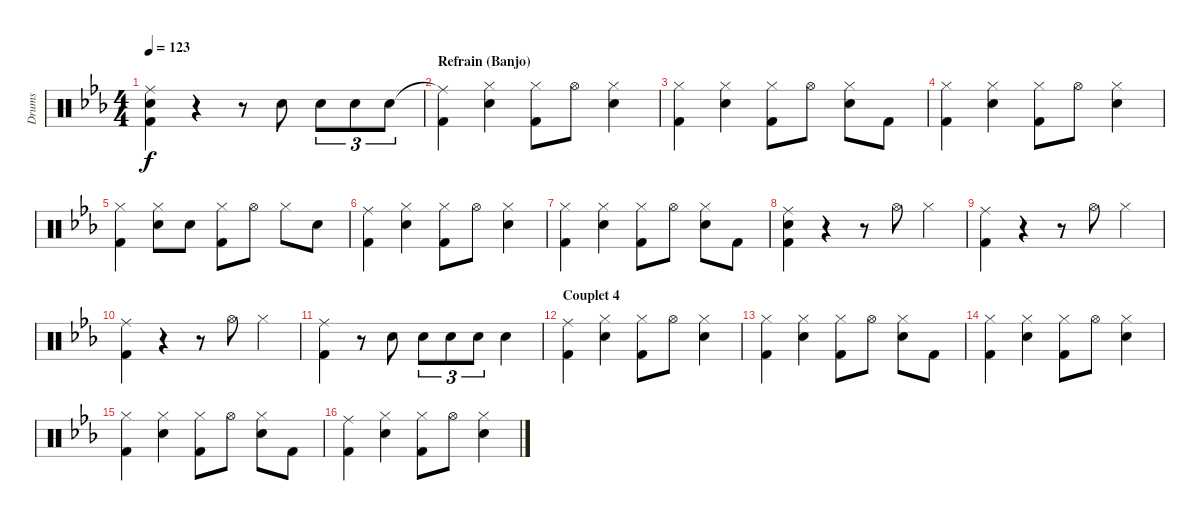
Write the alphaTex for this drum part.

\track ("Drums" "Drums") {instrument percussion}
\staff {score}
\articulation defaults
\ts (4 4)
\tempo 123
\clef neutral
\ks cminor
("Ride (middle)" "Electric Snare (hit)" "Kick (hit) 2").4{dy f} r.4 r.8 "Electric Snare (hit)".8 "Electric Snare (hit)".8{tu (3 2)} "Electric Snare (hit)".8{tu (3 2)} "Electric Snare (hit)".8{tu (3 2)} |
\section ("" "Refrain (Banjo)")
("Ride (middle)"{t} "Kick (hit) 2").4 ("Hi-Hat (closed)" "Electric Snare (hit)").4 ("Hi-Hat (closed)" "Kick (hit) 2").8 "Hi-Hat (open)".8 ("Hi-Hat (closed)" "Electric Snare (hit)").4 |
("Hi-Hat (closed)" "Kick (hit) 2").4 ("Hi-Hat (closed)" "Electric Snare (hit)").4 ("Hi-Hat (closed)" "Kick (hit) 2").8 "Hi-Hat (open)".8 ("Hi-Hat (closed)" "Electric Snare (hit)").8 "Kick (hit) 2".8 |
("Hi-Hat (closed)" "Kick (hit) 2").4 ("Hi-Hat (closed)" "Electric Snare (hit)").4 ("Hi-Hat (closed)" "Kick (hit) 2").8 "Hi-Hat (open)".8 ("Hi-Hat (closed)" "Electric Snare (hit)").4 |
("Hi-Hat (closed)" "Kick (hit) 2").4 ("Hi-Hat (closed)" "Electric Snare (hit)").8 "Electric Snare (hit)".8 ("Hi-Hat (closed)" "Kick (hit) 2").8 "Hi-Hat (open)".8 "Hi-Hat (closed)".8 "Electric Snare (hit)".8 |
("Ride (middle)" "Kick (hit) 2").4 ("Hi-Hat (closed)" "Electric Snare (hit)").4 ("Hi-Hat (closed)" "Kick (hit) 2").8 "Hi-Hat (open)".8 ("Hi-Hat (closed)" "Electric Snare (hit)").4 |
("Hi-Hat (closed)" "Kick (hit) 2").4 ("Hi-Hat (closed)" "Electric Snare (hit)").4 ("Hi-Hat (closed)" "Kick (hit) 2").8 "Hi-Hat (open)".8 ("Hi-Hat (closed)" "Electric Snare (hit)").8 "Kick (hit) 2".8 |
("Ride (middle)" "Electric Snare (hit)" "Kick (hit) 2").4 r.4 r.8 "Hi-Hat (open)".8 "Hi-Hat (closed)".4 |
("Ride (middle)" "Kick (hit) 2").4 r.4 r.8 "Hi-Hat (open)".8 "Hi-Hat (closed)".4 |
("Ride (middle)" "Kick (hit) 2").4 r.4 r.8 "Hi-Hat (open)".8 "Hi-Hat (closed)".4 |
("Ride (middle)" "Kick (hit) 2").4 r.8 "Electric Snare (hit)".8 "Electric Snare (hit)".8{tu (3 2)} "Electric Snare (hit)".8{tu (3 2)} "Electric Snare (hit)".8{tu (3 2)} "Electric Snare (hit)".4 |
\section ("" "Couplet 4")
("Ride (middle)" "Kick (hit) 2").4 ("Hi-Hat (closed)" "Electric Snare (hit)").4 ("Hi-Hat (closed)" "Kick (hit) 2").8 "Hi-Hat (open)".8 ("Hi-Hat (closed)" "Electric Snare (hit)").4 |
("Hi-Hat (closed)" "Kick (hit) 2").4 ("Hi-Hat (closed)" "Electric Snare (hit)").4 ("Hi-Hat (closed)" "Kick (hit) 2").8 "Hi-Hat (open)".8 ("Hi-Hat (closed)" "Electric Snare (hit)").8 "Kick (hit) 2".8 |
("Hi-Hat (closed)" "Kick (hit) 2").4 ("Hi-Hat (closed)" "Electric Snare (hit)").4 ("Hi-Hat (closed)" "Kick (hit) 2").8 "Hi-Hat (open)".8 ("Hi-Hat (closed)" "Electric Snare (hit)").4 |
("Hi-Hat (closed)" "Kick (hit) 2").4 ("Hi-Hat (closed)" "Electric Snare (hit)").4 ("Hi-Hat (closed)" "Kick (hit) 2").8 "Hi-Hat (open)".8 ("Hi-Hat (closed)" "Electric Snare (hit)").8 "Kick (hit) 2".8 |
("Ride (middle)" "Kick (hit) 2").4 ("Hi-Hat (closed)" "Electric Snare (hit)").4 ("Hi-Hat (closed)" "Kick (hit) 2").8 "Hi-Hat (open)".8 ("Hi-Hat (closed)" "Electric Snare (hit)").4
